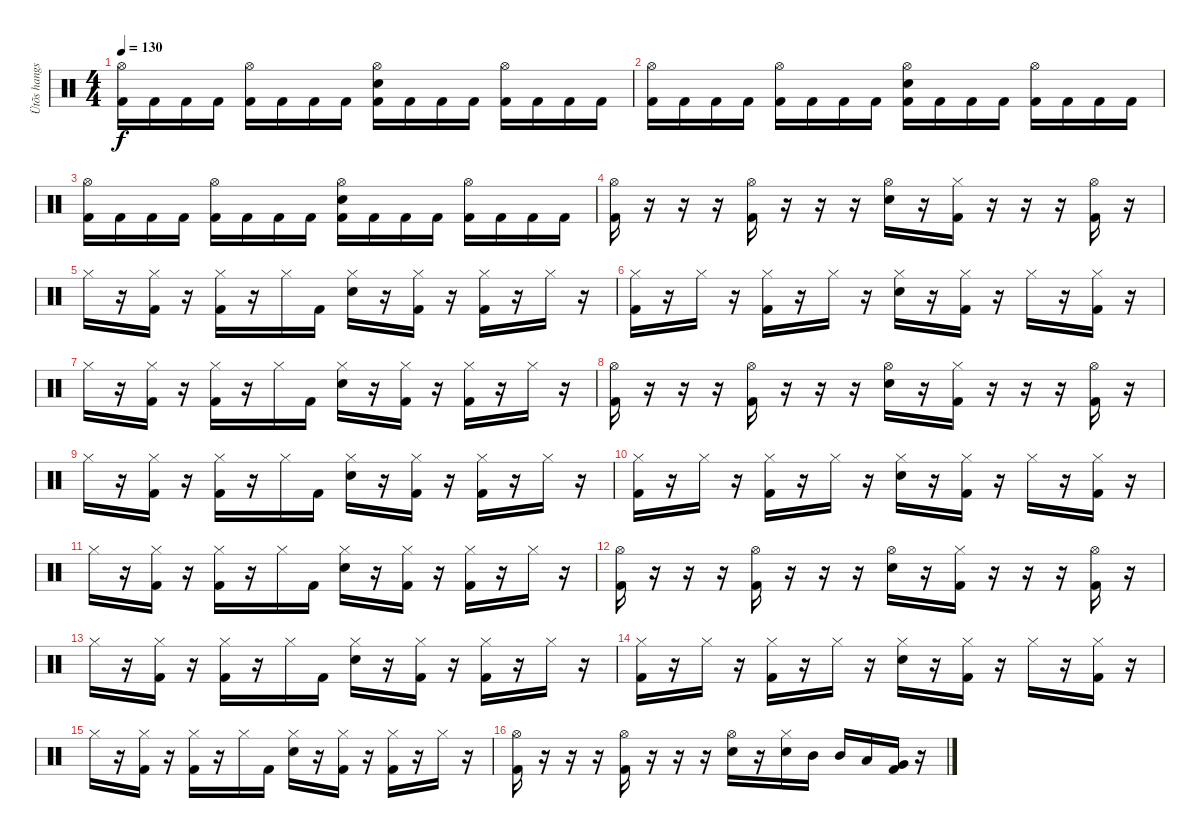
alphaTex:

\track ("Ütõs hangszer" "Ütõs hangs") {instrument percussion}
\staff {score}
\articulation defaults
\ts (4 4)
\tempo 130
\clef neutral
\ks c
("Hi-Hat (open)" "Kick (hit) 2").16{dy f} "Kick (hit) 2".16 "Kick (hit) 2".16 "Kick (hit) 2".16 ("Hi-Hat (open)" "Kick (hit) 2").16 "Kick (hit) 2".16 "Kick (hit) 2".16 "Kick (hit) 2".16 ("Hi-Hat (open)" "Snare (hit) 2" "Kick (hit) 2").16 "Kick (hit) 2".16 "Kick (hit) 2".16 "Kick (hit) 2".16 ("Hi-Hat (open)" "Kick (hit) 2").16 "Kick (hit) 2".16 "Kick (hit) 2".16 "Kick (hit) 2".16 |
("Hi-Hat (open)" "Kick (hit) 2").16 "Kick (hit) 2".16 "Kick (hit) 2".16 "Kick (hit) 2".16 ("Hi-Hat (open)" "Kick (hit) 2").16 "Kick (hit) 2".16 "Kick (hit) 2".16 "Kick (hit) 2".16 ("Hi-Hat (open)" "Snare (hit) 2" "Kick (hit) 2").16 "Kick (hit) 2".16 "Kick (hit) 2".16 "Kick (hit) 2".16 ("Hi-Hat (open)" "Kick (hit) 2").16 "Kick (hit) 2".16 "Kick (hit) 2".16 "Kick (hit) 2".16 |
("Hi-Hat (open)" "Kick (hit) 2").16 "Kick (hit) 2".16 "Kick (hit) 2".16 "Kick (hit) 2".16 ("Hi-Hat (open)" "Kick (hit) 2").16 "Kick (hit) 2".16 "Kick (hit) 2".16 "Kick (hit) 2".16 ("Hi-Hat (open)" "Snare (hit) 2" "Kick (hit) 2").16 "Kick (hit) 2".16 "Kick (hit) 2".16 "Kick (hit) 2".16 ("Hi-Hat (open)" "Kick (hit) 2").16 "Kick (hit) 2".16 "Kick (hit) 2".16 "Kick (hit) 2".16 |
("Hi-Hat (open)" "Kick (hit) 2").16 r.16 r.16 r.16 ("Hi-Hat (open)" "Kick (hit) 2").16 r.16 r.16 r.16 ("Hi-Hat (open)" "Snare (hit) 2").16 r.16 ("Hi-Hat (closed)" "Kick (hit) 2").16 r.16 r.16 r.16 ("Hi-Hat (open)" "Kick (hit) 2").16 r.16 |
"Hi-Hat (closed)".16 r.16 ("Hi-Hat (closed)" "Kick (hit) 2").16 r.16 ("Hi-Hat (closed)" "Kick (hit) 2").16 r.16 "Hi-Hat (closed)".16 "Kick (hit) 2".16 ("Hi-Hat (closed)" "Snare (hit) 2").16 r.16 ("Hi-Hat (closed)" "Kick (hit) 2").16 r.16 ("Hi-Hat (closed)" "Kick (hit) 2").16 r.16 "Hi-Hat (closed)".16 r.16 |
("Hi-Hat (closed)" "Kick (hit) 2").16 r.16 "Hi-Hat (closed)".16 r.16 ("Hi-Hat (closed)" "Kick (hit) 2").16 r.16 "Hi-Hat (closed)".16 r.16 ("Hi-Hat (closed)" "Snare (hit) 2").16 r.16 ("Hi-Hat (closed)" "Kick (hit) 2").16 r.16 "Hi-Hat (closed)".16 r.16 ("Hi-Hat (closed)" "Kick (hit) 2").16 r.16 |
"Hi-Hat (closed)".16 r.16 ("Hi-Hat (closed)" "Kick (hit) 2").16 r.16 ("Hi-Hat (closed)" "Kick (hit) 2").16 r.16 "Hi-Hat (closed)".16 "Kick (hit) 2".16 ("Hi-Hat (closed)" "Snare (hit) 2").16 r.16 ("Hi-Hat (closed)" "Kick (hit) 2").16 r.16 ("Hi-Hat (closed)" "Kick (hit) 2").16 r.16 "Hi-Hat (closed)".16 r.16 |
("Hi-Hat (open)" "Kick (hit) 2").16 r.16 r.16 r.16 ("Hi-Hat (open)" "Kick (hit) 2").16 r.16 r.16 r.16 ("Hi-Hat (open)" "Snare (hit) 2").16 r.16 ("Hi-Hat (closed)" "Kick (hit) 2").16 r.16 r.16 r.16 ("Hi-Hat (open)" "Kick (hit) 2").16 r.16 |
"Hi-Hat (closed)".16 r.16 ("Hi-Hat (closed)" "Kick (hit) 2").16 r.16 ("Hi-Hat (closed)" "Kick (hit) 2").16 r.16 "Hi-Hat (closed)".16 "Kick (hit) 2".16 ("Hi-Hat (closed)" "Snare (hit) 2").16 r.16 ("Hi-Hat (closed)" "Kick (hit) 2").16 r.16 ("Hi-Hat (closed)" "Kick (hit) 2").16 r.16 "Hi-Hat (closed)".16 r.16 |
("Hi-Hat (closed)" "Kick (hit) 2").16 r.16 "Hi-Hat (closed)".16 r.16 ("Hi-Hat (closed)" "Kick (hit) 2").16 r.16 "Hi-Hat (closed)".16 r.16 ("Hi-Hat (closed)" "Snare (hit) 2").16 r.16 ("Hi-Hat (closed)" "Kick (hit) 2").16 r.16 "Hi-Hat (closed)".16 r.16 ("Hi-Hat (closed)" "Kick (hit) 2").16 r.16 |
"Hi-Hat (closed)".16 r.16 ("Hi-Hat (closed)" "Kick (hit) 2").16 r.16 ("Hi-Hat (closed)" "Kick (hit) 2").16 r.16 "Hi-Hat (closed)".16 "Kick (hit) 2".16 ("Hi-Hat (closed)" "Snare (hit) 2").16 r.16 ("Hi-Hat (closed)" "Kick (hit) 2").16 r.16 ("Hi-Hat (closed)" "Kick (hit) 2").16 r.16 "Hi-Hat (closed)".16 r.16 |
("Hi-Hat (open)" "Kick (hit) 2").16 r.16 r.16 r.16 ("Hi-Hat (open)" "Kick (hit) 2").16 r.16 r.16 r.16 ("Hi-Hat (open)" "Snare (hit) 2").16 r.16 ("Hi-Hat (closed)" "Kick (hit) 2").16 r.16 r.16 r.16 ("Hi-Hat (open)" "Kick (hit) 2").16 r.16 |
"Hi-Hat (closed)".16 r.16 ("Hi-Hat (closed)" "Kick (hit) 2").16 r.16 ("Hi-Hat (closed)" "Kick (hit) 2").16 r.16 "Hi-Hat (closed)".16 "Kick (hit) 2".16 ("Hi-Hat (closed)" "Snare (hit) 2").16 r.16 ("Hi-Hat (closed)" "Kick (hit) 2").16 r.16 ("Hi-Hat (closed)" "Kick (hit) 2").16 r.16 "Hi-Hat (closed)".16 r.16 |
("Hi-Hat (closed)" "Kick (hit) 2").16 r.16 "Hi-Hat (closed)".16 r.16 ("Hi-Hat (closed)" "Kick (hit) 2").16 r.16 "Hi-Hat (closed)".16 r.16 ("Hi-Hat (closed)" "Snare (hit) 2").16 r.16 ("Hi-Hat (closed)" "Kick (hit) 2").16 r.16 "Hi-Hat (closed)".16 r.16 ("Hi-Hat (closed)" "Kick (hit) 2").16 r.16 |
"Hi-Hat (closed)".16 r.16 ("Hi-Hat (closed)" "Kick (hit) 2").16 r.16 ("Hi-Hat (closed)" "Kick (hit) 2").16 r.16 "Hi-Hat (closed)".16 "Kick (hit) 2".16 ("Hi-Hat (closed)" "Snare (hit) 2").16 r.16 ("Hi-Hat (closed)" "Kick (hit) 2").16 r.16 ("Hi-Hat (closed)" "Kick (hit) 2").16 r.16 "Hi-Hat (closed)".16 r.16 |
("Hi-Hat (open)" "Kick (hit) 2").16 r.16 r.16 r.16 ("Hi-Hat (open)" "Kick (hit) 2").16 r.16 r.16 r.16 ("Hi-Hat (open)" "Snare (hit) 2").16 r.16 ("Hi-Hat (closed)" "Snare (hit) 2").16 "Mid Tom (hit)".16 "Mid Tom (hit)".16 "Low Tom (hit)".16 ("Very Low Tom (hit)" "Kick (hit) 2").16 r.16
